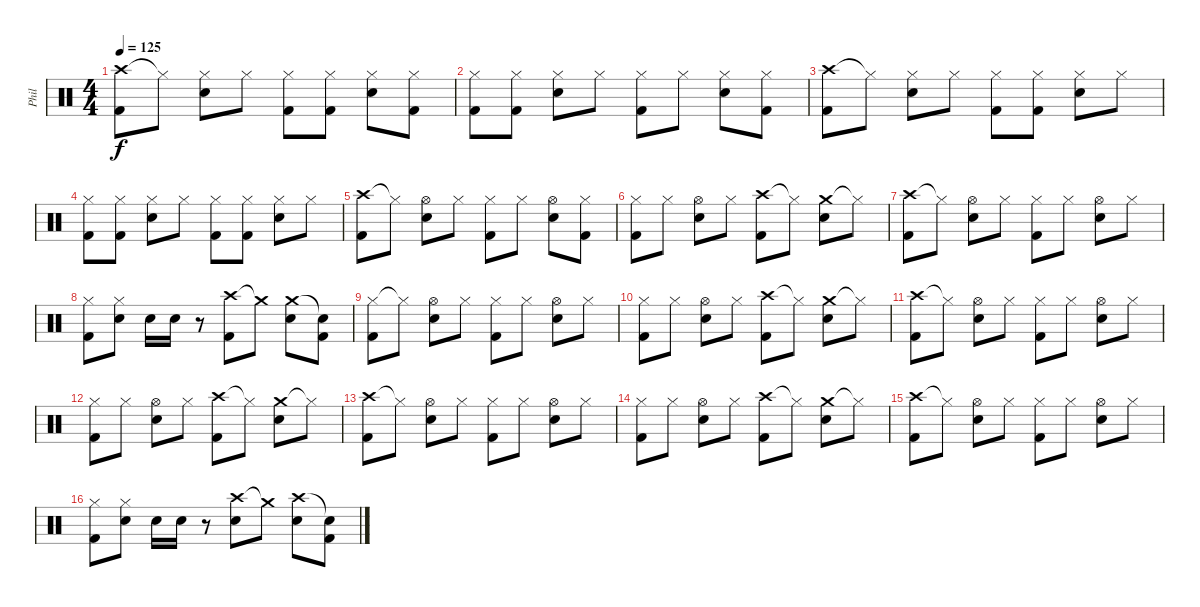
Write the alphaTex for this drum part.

\track ("Phil" "Phil") {instrument percussion}
\staff {score}
\articulation defaults
\ts (4 4)
\tempo 125
\clef neutral
\ks c
("Crash high (hit)" "Kick (hit) 2").8{dy f} "Hi-Hat (closed)"{t}.8 ("Hi-Hat (closed)" "Snare (hit) 2").8 "Hi-Hat (closed)".8 ("Hi-Hat (closed)" "Kick (hit) 2").8 ("Hi-Hat (closed)" "Kick (hit) 2").8 ("Hi-Hat (closed)" "Snare (hit) 2").8 ("Hi-Hat (closed)" "Kick (hit) 2").8 |
("Hi-Hat (closed)" "Kick (hit) 2").8 ("Hi-Hat (closed)" "Kick (hit) 2").8 ("Hi-Hat (closed)" "Snare (hit) 2").8 "Hi-Hat (closed)".8 ("Hi-Hat (closed)" "Kick (hit) 2").8 "Hi-Hat (closed)".8 ("Hi-Hat (closed)" "Snare (hit) 2").8 ("Hi-Hat (closed)" "Kick (hit) 2").8 |
("Crash high (hit)" "Kick (hit) 2").8 "Hi-Hat (closed)"{t}.8 ("Hi-Hat (closed)" "Snare (hit) 2").8 "Hi-Hat (closed)".8 ("Hi-Hat (closed)" "Kick (hit) 2").8 ("Hi-Hat (closed)" "Kick (hit) 2").8 ("Hi-Hat (closed)" "Snare (hit) 2").8 "Hi-Hat (closed)".8 |
("Hi-Hat (closed)" "Kick (hit) 2").8 ("Hi-Hat (closed)" "Kick (hit) 2").8 ("Hi-Hat (closed)" "Snare (hit) 2").8 "Hi-Hat (closed)".8 ("Hi-Hat (closed)" "Kick (hit) 2").8 ("Hi-Hat (closed)" "Kick (hit) 2").8 ("Hi-Hat (closed)" "Snare (hit) 2").8 "Hi-Hat (closed)".8 |
("Crash high (hit)" "Kick (hit) 2").8 "Hi-Hat (closed)"{t}.8 ("Hi-Hat (open)" "Snare (hit) 2").8 "Hi-Hat (closed)".8 ("Hi-Hat (closed)" "Kick (hit) 2").8 "Hi-Hat (closed)".8 ("Hi-Hat (open)" "Snare (hit) 2").8 ("Hi-Hat (closed)" "Kick (hit) 2").8 |
("Hi-Hat (closed)" "Kick (hit) 2").8 "Hi-Hat (closed)".8 ("Hi-Hat (open)" "Snare (hit) 2").8 "Hi-Hat (closed)".8 ("Crash high (hit)" "Kick (hit) 2").8 "Hi-Hat (closed)"{t}.8 ("Crash medium (hit)" "Snare (hit) 2").8 "Hi-Hat (closed)"{t}.8 |
("Crash high (hit)" "Kick (hit) 2").8 "Hi-Hat (closed)"{t}.8 ("Hi-Hat (open)" "Snare (hit) 2").8 "Hi-Hat (closed)".8 ("Hi-Hat (closed)" "Kick (hit) 2").8 "Hi-Hat (closed)".8 ("Hi-Hat (open)" "Snare (hit) 2").8 "Hi-Hat (closed)".8 |
("Hi-Hat (closed)" "Kick (hit) 2").8 ("Hi-Hat (closed)" "Snare (hit) 2").8 "Snare (hit) 2".16 "Snare (hit) 2".16 r.8 ("Crash high (hit)" "Kick (hit) 2").8 "Crash medium (hit)"{t}.8 ("Crash medium (hit)" "Snare (hit) 2").8 ("Snare (hit)"{t} "Kick (hit) 2").8 |
("Hi-Hat (closed)" "Kick (hit) 2").8 "Hi-Hat (closed)"{t}.8 ("Hi-Hat (open)" "Snare (hit) 2").8 "Hi-Hat (closed)".8 ("Hi-Hat (closed)" "Kick (hit) 2").8 "Hi-Hat (closed)".8 ("Hi-Hat (open)" "Snare (hit) 2").8 "Hi-Hat (closed)".8 |
("Hi-Hat (closed)" "Kick (hit) 2").8 "Hi-Hat (closed)".8 ("Hi-Hat (open)" "Snare (hit) 2").8 "Hi-Hat (closed)".8 ("Crash high (hit)" "Kick (hit) 2").8 "Hi-Hat (closed)"{t}.8 ("Crash medium (hit)" "Snare (hit) 2").8 "Hi-Hat (closed)"{t}.8 |
("Crash high (hit)" "Kick (hit) 2").8 "Hi-Hat (closed)"{t}.8 ("Hi-Hat (open)" "Snare (hit) 2").8 "Hi-Hat (closed)".8 ("Hi-Hat (closed)" "Kick (hit) 2").8 "Hi-Hat (closed)".8 ("Hi-Hat (open)" "Snare (hit) 2").8 "Hi-Hat (closed)".8 |
("Hi-Hat (closed)" "Kick (hit) 2").8 "Hi-Hat (closed)".8 ("Hi-Hat (open)" "Snare (hit) 2").8 "Hi-Hat (closed)".8 ("Crash high (hit)" "Kick (hit) 2").8 "Hi-Hat (closed)"{t}.8 ("Crash medium (hit)" "Snare (hit) 2").8 "Hi-Hat (closed)"{t}.8 |
("Crash high (hit)" "Kick (hit) 2").8 "Hi-Hat (closed)"{t}.8 ("Hi-Hat (open)" "Snare (hit) 2").8 "Hi-Hat (closed)".8 ("Hi-Hat (closed)" "Kick (hit) 2").8 "Hi-Hat (closed)".8 ("Hi-Hat (open)" "Snare (hit) 2").8 "Hi-Hat (closed)".8 |
("Hi-Hat (closed)" "Kick (hit) 2").8 "Hi-Hat (closed)".8 ("Hi-Hat (open)" "Snare (hit) 2").8 "Hi-Hat (closed)".8 ("Crash high (hit)" "Kick (hit) 2").8 "Hi-Hat (closed)"{t}.8 ("Crash medium (hit)" "Snare (hit) 2").8 "Hi-Hat (closed)"{t}.8 |
("Crash high (hit)" "Kick (hit) 2").8 "Hi-Hat (closed)"{t}.8 ("Hi-Hat (open)" "Snare (hit) 2").8 "Hi-Hat (closed)".8 ("Hi-Hat (closed)" "Kick (hit) 2").8 "Hi-Hat (closed)".8 ("Hi-Hat (open)" "Snare (hit) 2").8 "Hi-Hat (closed)".8 |
("Hi-Hat (closed)" "Kick (hit) 2").8 ("Hi-Hat (closed)" "Snare (hit) 2").8 "Snare (hit) 2".16 "Snare (hit) 2".16 r.8 ("Crash high (hit)" "Snare (hit) 2").8 "Crash medium (hit)"{t}.8 ("Crash high (hit)" "Snare (hit) 2").8 ("Snare (hit)"{t} "Kick (hit) 2").8
